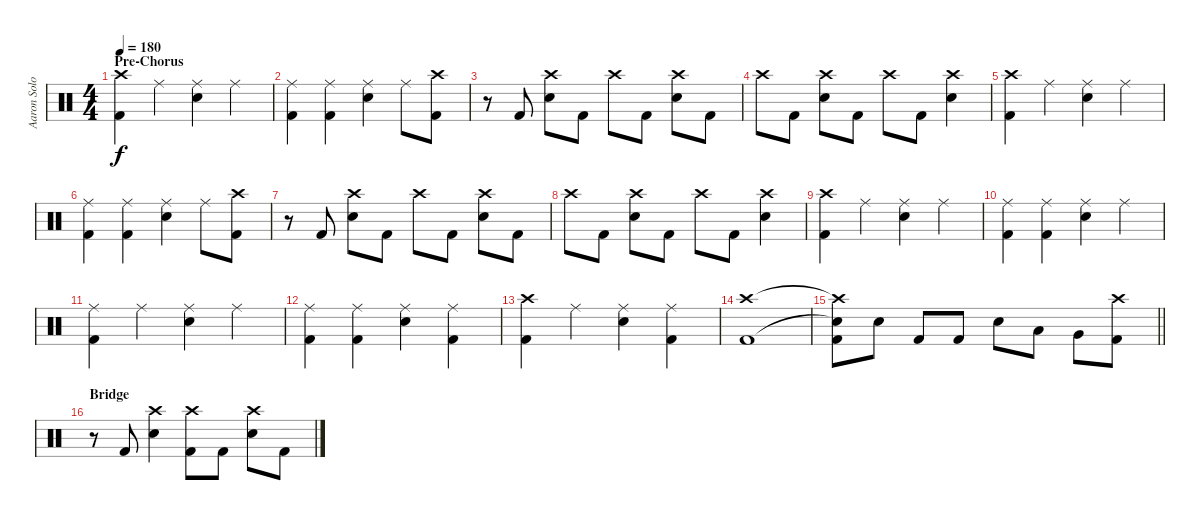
\track ("Aaron Solowoniuk" "Aaron Solo") {instrument percussion}
\staff {score}
\articulation defaults
\ts (4 4)
\section ("" "Pre-Chorus")
\tempo 180
\clef neutral
\ks c
("Crash high (hit)" "Kick (hit) 2").4{dy f} "Ride (middle)".4 ("Ride (middle)" "Electric Snare (hit)").4 "Ride (middle)".4 |
("Ride (middle)" "Kick (hit) 2").4 ("Ride (middle)" "Kick (hit) 2").4 ("Ride (middle)" "Electric Snare (hit)").4 "Ride (middle)".8 ("Crash high (hit)" "Kick (hit) 2").8 |
r.8 "Kick (hit) 2".8 ("Crash high (hit)" "Electric Snare (hit)").8 "Kick (hit) 2".8 "Crash high (hit)".8 "Kick (hit) 2".8 ("Crash high (hit)" "Electric Snare (hit)").8 "Kick (hit) 2".8 |
"Crash high (hit)".8 "Kick (hit) 2".8 ("Crash high (hit)" "Electric Snare (hit)").8 "Kick (hit) 2".8 "Crash high (hit)".8 "Kick (hit) 2".8 ("Crash high (hit)" "Electric Snare (hit)").4 |
("Crash high (hit)" "Kick (hit) 2").4 "Ride (middle)".4 ("Ride (middle)" "Electric Snare (hit)").4 "Ride (middle)".4 |
("Ride (middle)" "Kick (hit) 2").4 ("Ride (middle)" "Kick (hit) 2").4 ("Ride (middle)" "Electric Snare (hit)").4 "Ride (middle)".8 ("Crash high (hit)" "Kick (hit) 2").8 |
r.8 "Kick (hit) 2".8 ("Crash high (hit)" "Electric Snare (hit)").8 "Kick (hit) 2".8 "Crash high (hit)".8 "Kick (hit) 2".8 ("Crash high (hit)" "Electric Snare (hit)").8 "Kick (hit) 2".8 |
"Crash high (hit)".8 "Kick (hit) 2".8 ("Crash high (hit)" "Electric Snare (hit)").8 "Kick (hit) 2".8 "Crash high (hit)".8 "Kick (hit) 2".8 ("Crash high (hit)" "Electric Snare (hit)").4 |
("Crash high (hit)" "Kick (hit) 2").4 "Ride (middle)".4 ("Ride (middle)" "Electric Snare (hit)").4 "Ride (middle)".4 |
("Ride (middle)" "Kick (hit) 2").4 ("Ride (middle)" "Kick (hit) 2").4 ("Ride (middle)" "Electric Snare (hit)").4 "Ride (middle)".4 |
("Ride (middle)" "Kick (hit) 2").4 "Ride (middle)".4 ("Ride (middle)" "Electric Snare (hit)").4 "Ride (middle)".4 |
("Ride (middle)" "Kick (hit) 2").4 ("Ride (middle)" "Kick (hit) 2").4 ("Ride (middle)" "Electric Snare (hit)").4 ("Ride (middle)" "Kick (hit) 2").4 |
("Crash high (hit)" "Kick (hit) 2").4 "Ride (middle)".4 ("Ride (middle)" "Electric Snare (hit)").4 ("Ride (middle)" "Kick (hit) 2").4 |
("Crash high (hit)" "Kick (hit) 2").1 |
\barLineRight lightlight
("Crash high (hit)"{t} "Snare (hit)"{t} "Kick (hit) 2").8 "Electric Snare (hit)".8 "Kick (hit) 2".8 "Kick (hit) 2".8 "Electric Snare (hit)".8 "Low Tom (hit)".8 "Very Low Tom (hit)".8 ("Crash high (hit)" "Kick (hit) 2").8 |
\section ("" "Bridge")
r.8 "Kick (hit) 2".8 ("Crash high (hit)" "Electric Snare (hit)").4 ("Crash high (hit)" "Kick (hit) 2").8 "Kick (hit) 2".8 ("Crash high (hit)" "Electric Snare (hit)").8 "Kick (hit) 2".8
